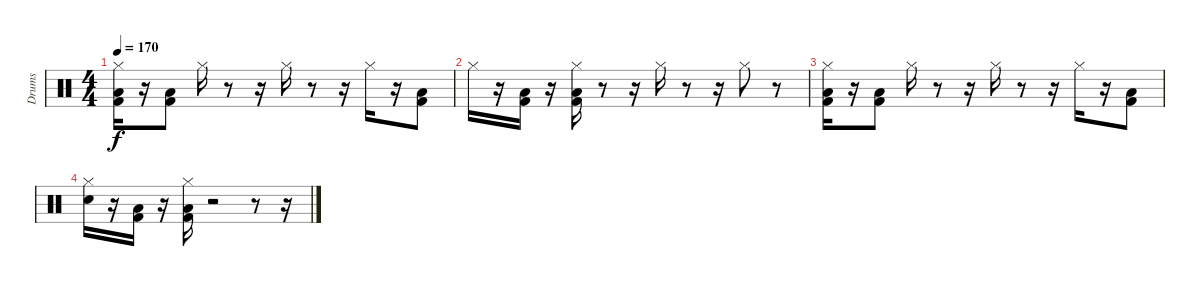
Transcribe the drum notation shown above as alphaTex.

\track ("Drums" "Drums") {instrument percussion}
\staff {score}
\articulation defaults
\ts (4 4)
\tempo 170
\clef neutral
\ks c
("Kick (hit) 2" "Low Floor Tom (hit)" "Hi-Hat (closed)").16{dy f} r.16 ("Kick (hit) 2" "Low Floor Tom (hit)").8 "Hi-Hat (closed)".16 r.8 r.16 "Hi-Hat (closed)".16 r.8 r.16 "Hi-Hat (closed)".16 r.16 ("Kick (hit) 2" "Low Floor Tom (hit)").8 |
"Hi-Hat (closed)".16 r.16 ("Kick (hit) 2" "Low Floor Tom (hit)").16 r.16 ("Kick (hit) 2" "Low Floor Tom (hit)" "Hi-Hat (closed)").16 r.8 r.16 "Hi-Hat (closed)".16 r.8 r.16 "Hi-Hat (closed)".8 r.8 |
("Kick (hit) 2" "Low Floor Tom (hit)" "Hi-Hat (closed)").16 r.16 ("Kick (hit) 2" "Low Floor Tom (hit)").8 "Hi-Hat (closed)".16 r.8 r.16 "Hi-Hat (closed)".16 r.8 r.16 "Hi-Hat (closed)".16 r.16 ("Kick (hit) 2" "Low Floor Tom (hit)").8 |
("Snare (hit)" "Hi-Hat (closed)").16 r.16 ("Kick (hit) 2" "Low Floor Tom (hit)").16 r.16 ("Kick (hit) 2" "Low Floor Tom (hit)" "Hi-Hat (closed)").16 r.2 r.8 r.16
